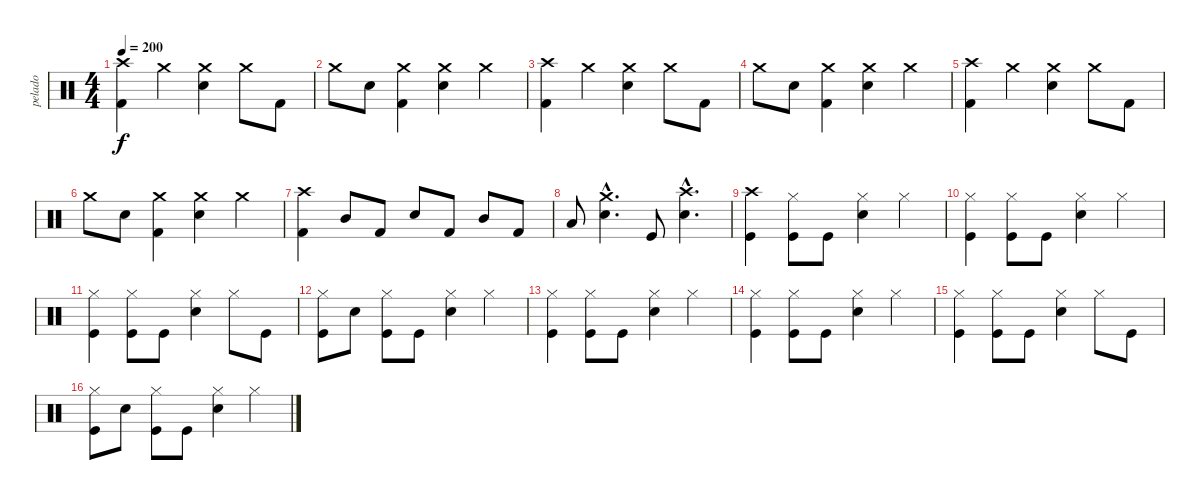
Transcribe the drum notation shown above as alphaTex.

\track ("pelado" "pelado") {instrument percussion}
\staff {score}
\articulation defaults
\ts (4 4)
\tempo 200
\clef neutral
\ks c
("Crash high (hit)" "Kick (hit) 2").4{dy f} "Crash medium (hit)".4 ("Crash medium (hit)" "Electric Snare (hit)").4 "Crash medium (hit)".8 "Kick (hit) 2".8 |
"Crash medium (hit)".8 "Electric Snare (hit)".8 ("Crash medium (hit)" "Kick (hit) 2").4 ("Crash medium (hit)" "Electric Snare (hit)").4 "Crash medium (hit)".4 |
("Crash high (hit)" "Kick (hit) 2").4 "Crash medium (hit)".4 ("Crash medium (hit)" "Electric Snare (hit)").4 "Crash medium (hit)".8 "Kick (hit) 2".8 |
"Crash medium (hit)".8 "Electric Snare (hit)".8 ("Crash medium (hit)" "Kick (hit) 2").4 ("Crash medium (hit)" "Electric Snare (hit)").4 "Crash medium (hit)".4 |
("Crash high (hit)" "Kick (hit) 2").4 "Crash medium (hit)".4 ("Crash medium (hit)" "Electric Snare (hit)").4 "Crash medium (hit)".8 "Kick (hit) 2".8 |
"Crash medium (hit)".8 "Electric Snare (hit)".8 ("Crash medium (hit)" "Kick (hit) 2").4 ("Crash medium (hit)" "Electric Snare (hit)").4 "Crash medium (hit)".4 |
("Crash high (hit)" "Kick (hit) 2").4 "Mid Tom (hit)".8 "Kick (hit) 2".8 "Electric Snare (hit)".8 "Kick (hit) 2".8 "Mid Tom (hit)".8 "Kick (hit) 2".8 |
"Low Tom (hit)".8 ("Crash medium (hit)"{hac} "Electric Snare (hit)"{hac}).4{d} "Kick (hit)".8 ("Crash high (hit)"{hac} "Electric Snare (hit)"{hac}).4{d} |
("Crash high (hit)" "Kick (hit)").4 ("Hi-Hat (closed)" "Kick (hit)").8 "Kick (hit)".8 ("Hi-Hat (closed)" "Electric Snare (hit)").4 "Hi-Hat (closed)".4 |
("Hi-Hat (closed)" "Kick (hit)").4 ("Hi-Hat (closed)" "Kick (hit)").8 "Kick (hit)".8 ("Hi-Hat (closed)" "Electric Snare (hit)").4 "Hi-Hat (closed)".4 |
("Hi-Hat (closed)" "Kick (hit)").4 ("Hi-Hat (closed)" "Kick (hit)").8 "Kick (hit)".8 ("Hi-Hat (closed)" "Electric Snare (hit)").4 "Hi-Hat (closed)".8 "Kick (hit)".8 |
("Hi-Hat (closed)" "Kick (hit)").8 "Electric Snare (hit)".8 ("Hi-Hat (closed)" "Kick (hit)").8 "Kick (hit)".8 ("Hi-Hat (closed)" "Electric Snare (hit)").4 "Hi-Hat (closed)".4 |
("Hi-Hat (closed)" "Kick (hit)").4 ("Hi-Hat (closed)" "Kick (hit)").8 "Kick (hit)".8 ("Hi-Hat (closed)" "Electric Snare (hit)").4 "Hi-Hat (closed)".4 |
("Hi-Hat (closed)" "Kick (hit)").4 ("Hi-Hat (closed)" "Kick (hit)").8 "Kick (hit)".8 ("Hi-Hat (closed)" "Electric Snare (hit)").4 "Hi-Hat (closed)".4 |
("Hi-Hat (closed)" "Kick (hit)").4 ("Hi-Hat (closed)" "Kick (hit)").8 "Kick (hit)".8 ("Hi-Hat (closed)" "Electric Snare (hit)").4 "Hi-Hat (closed)".8 "Kick (hit)".8 |
("Hi-Hat (closed)" "Kick (hit)").8 "Electric Snare (hit)".8 ("Hi-Hat (closed)" "Kick (hit)").8 "Kick (hit)".8 ("Hi-Hat (closed)" "Electric Snare (hit)").4 "Hi-Hat (closed)".4
